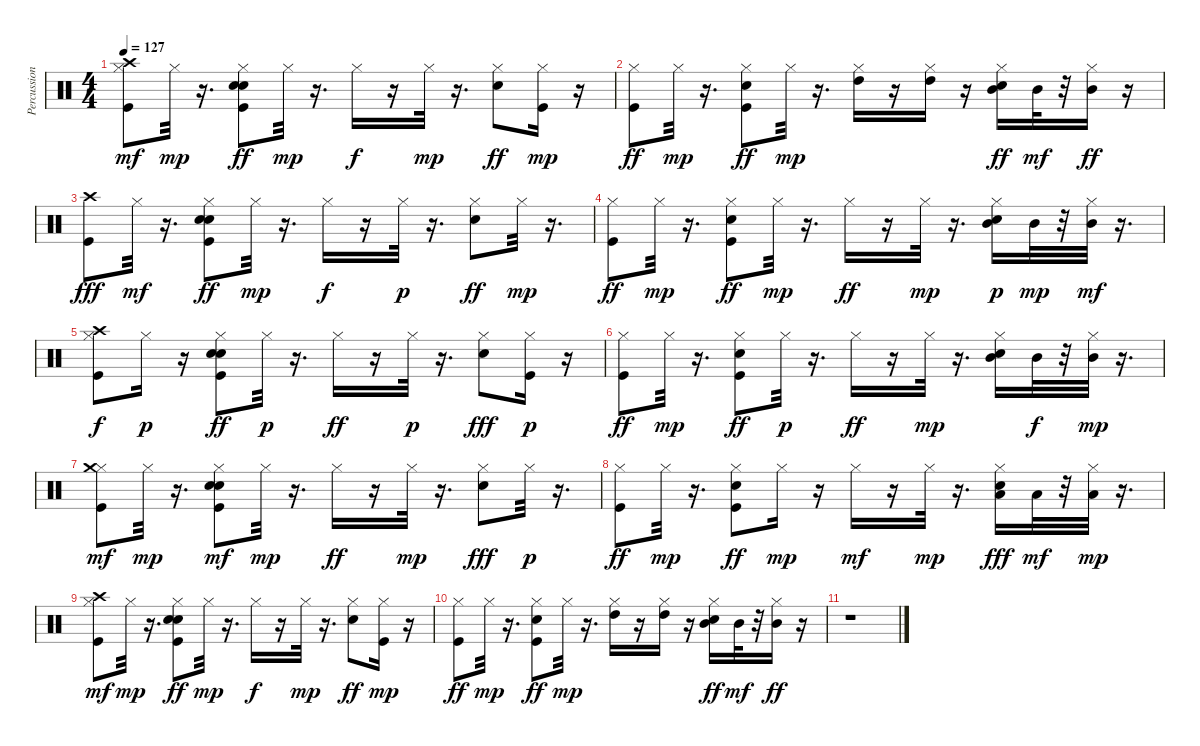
\track ("Percussions (drums + hihats)" "Percussion") {instrument percussion}
\staff {score}
\articulation defaults
\ts (4 4)
\tempo 127
\clef neutral
\ks c
("Kick (hit)" "Hi-Hat (closed)" "Crash high (hit)").8{dy mf volume 11} "Hi-Hat (closed)".32{dy mp volume 11} r.16{d} ("Kick (hit)" "Snare (hit) 2" "Electric Snare (hit)" "Hi-Hat (closed)").8{dy ff volume 11} "Hi-Hat (closed)".32{dy mp volume 11} r.16{d} "Hi-Hat (closed)".16{dy f volume 10} r.16 "Hi-Hat (closed)".32{dy mp volume 10} r.16{d} ("Snare (hit) 2" "Hi-Hat (closed)").8{dy ff volume 10} ("Kick (hit)" "Hi-Hat (closed)").16{dy mp volume 10} r.16 |
("Kick (hit)" "Hi-Hat (closed)").8{dy ff volume 10} "Hi-Hat (closed)".32{dy mp volume 10} r.16{d} ("Kick (hit)" "Snare (hit) 2" "Hi-Hat (closed)").8{dy ff volume 9} "Hi-Hat (closed)".32{dy mp volume 9} r.16{d} ("Hi-Hat (closed)" "High Tom (hit)").16{volume 9} r.16 ("Hi-Hat (closed)" "High Tom (hit)").16{volume 9} r.16 ("Snare (hit) 2" "Hi-Hat (closed)" "Mid Tom (hit)").16{dy ff volume 9} "Mid Tom (hit)".32{dy mf volume 9} r.32 ("Hi-Hat (closed)" "Mid Tom (hit)").16{dy ff volume 9} r.16 |
("Kick (hit)" "Crash high (hit)").8{dy fff volume 9} "Hi-Hat (closed)".32{dy mf volume 9} r.16{d} ("Kick (hit)" "Snare (hit) 2" "Electric Snare (hit)" "Hi-Hat (closed)").8{dy ff volume 8} "Hi-Hat (closed)".32{dy mp volume 8} r.16{d} "Hi-Hat (closed)".16{dy f volume 8} r.16 "Hi-Hat (closed)".32{dy p volume 8} r.16{d} ("Snare (hit) 2" "Hi-Hat (closed)").8{dy ff volume 8} "Hi-Hat (closed)".32{dy mp volume 8} r.16{d} |
("Kick (hit)" "Hi-Hat (closed)").8{dy ff volume 8} "Hi-Hat (closed)".32{dy mp volume 8} r.16{d} ("Kick (hit)" "Snare (hit) 2" "Hi-Hat (closed)").8{dy ff volume 8} "Hi-Hat (closed)".32{dy mp volume 8} r.16{d} "Hi-Hat (closed)".16{dy ff volume 8} r.16 "Hi-Hat (closed)".32{dy mp volume 7} r.16{d} ("Snare (hit) 2" "Hi-Hat (closed)" "Mid Tom (hit)").16{dy p volume 7} "Mid Tom (hit)".32{dy mp volume 7} r.32 ("Hi-Hat (closed)" "Mid Tom (hit)").32{dy mf volume 7} r.16{d} |
("Kick (hit)" "Hi-Hat (closed)" "Crash high (hit)").8{dy f volume 7} "Hi-Hat (closed)".16{dy p volume 7} r.16 ("Kick (hit)" "Snare (hit) 2" "Electric Snare (hit)" "Hi-Hat (closed)").8{dy ff volume 7} "Hi-Hat (closed)".32{dy p volume 7} r.16{d} "Hi-Hat (closed)".16{dy ff volume 7} r.16 "Hi-Hat (closed)".32{dy p volume 6} r.16{d} ("Snare (hit) 2" "Hi-Hat (closed)").8{dy fff volume 6} ("Kick (hit)" "Hi-Hat (closed)").16{dy p volume 6} r.16 |
("Kick (hit)" "Hi-Hat (closed)").8{dy ff volume 6} "Hi-Hat (closed)".32{dy mp volume 6} r.16{d} ("Kick (hit)" "Snare (hit) 2" "Hi-Hat (closed)").8{dy ff volume 6} "Hi-Hat (closed)".32{dy p volume 6} r.16{d} "Hi-Hat (closed)".16{dy ff volume 5} r.16 "Hi-Hat (closed)".32{dy mp volume 5} r.16{d} ("Snare (hit) 2" "Hi-Hat (closed)" "Mid Tom (hit)").16{volume 5} "Mid Tom (hit)".32{dy f volume 5} r.32 ("Hi-Hat (closed)" "Mid Tom (hit)").32{dy mp volume 5} r.16{d} |
("Kick (hit)" "Hi-Hat (closed)" "Crash medium (hit)").8{dy mf volume 5} "Hi-Hat (closed)".32{dy mp volume 4} r.16{d} ("Kick (hit)" "Snare (hit) 2" "Electric Snare (hit)" "Hi-Hat (closed)").8{dy mf volume 4} "Hi-Hat (closed)".32{dy mp volume 4} r.16{d} "Hi-Hat (closed)".16{dy ff volume 4} r.16 "Hi-Hat (closed)".32{dy mp volume 4} r.16{d} ("Snare (hit) 2" "Hi-Hat (closed)").8{dy fff volume 4} "Hi-Hat (closed)".32{dy p volume 4} r.16{d} |
("Kick (hit)" "Hi-Hat (closed)").8{dy ff volume 3} "Hi-Hat (closed)".32{dy mp volume 3} r.16{d} ("Kick (hit)" "Snare (hit) 2" "Hi-Hat (closed)").8{dy ff volume 3} "Hi-Hat (closed)".16{dy mp volume 3} r.16 "Hi-Hat (closed)".16{dy mf volume 2} r.16 "Hi-Hat (closed)".32{dy mp volume 2} r.16{d} ("Snare (hit) 2" "Hi-Hat (closed)" "Low Tom (hit)").16{dy fff volume 2} "Low Tom (hit)".32{dy mf volume 2} r.32 ("Hi-Hat (closed)" "Low Tom (hit)").32{dy mp volume 2} r.16{d} |
("Kick (hit)" "Hi-Hat (closed)" "Crash high (hit)").8{dy mf volume 2} "Hi-Hat (closed)".32{dy mp volume 2} r.16{d} ("Kick (hit)" "Snare (hit) 2" "Electric Snare (hit)" "Hi-Hat (closed)").8{dy ff volume 2} "Hi-Hat (closed)".32{dy mp volume 2} r.16{d} "Hi-Hat (closed)".16{dy f volume 1} r.16 "Hi-Hat (closed)".32{dy mp volume 1} r.16{d} ("Snare (hit) 2" "Hi-Hat (closed)").8{dy ff volume 1} ("Kick (hit)" "Hi-Hat (closed)").16{dy mp volume 1} r.16 |
("Kick (hit)" "Hi-Hat (closed)").8{dy ff volume 1} "Hi-Hat (closed)".32{dy mp volume 1} r.16{d} ("Kick (hit)" "Snare (hit) 2" "Hi-Hat (closed)").8{dy ff volume 1} "Hi-Hat (closed)".32{dy mp volume 1} r.16{d} ("Hi-Hat (closed)" "High Tom (hit)").16{volume 1} r.16 ("Hi-Hat (closed)" "High Tom (hit)").16{volume 1} r.16 ("Snare (hit) 2" "Hi-Hat (closed)" "Mid Tom (hit)").16{dy ff volume 0} "Mid Tom (hit)".32{dy mf volume 0} r.32 ("Hi-Hat (closed)" "Mid Tom (hit)").16{dy ff volume 0} r.16 |
r.1
